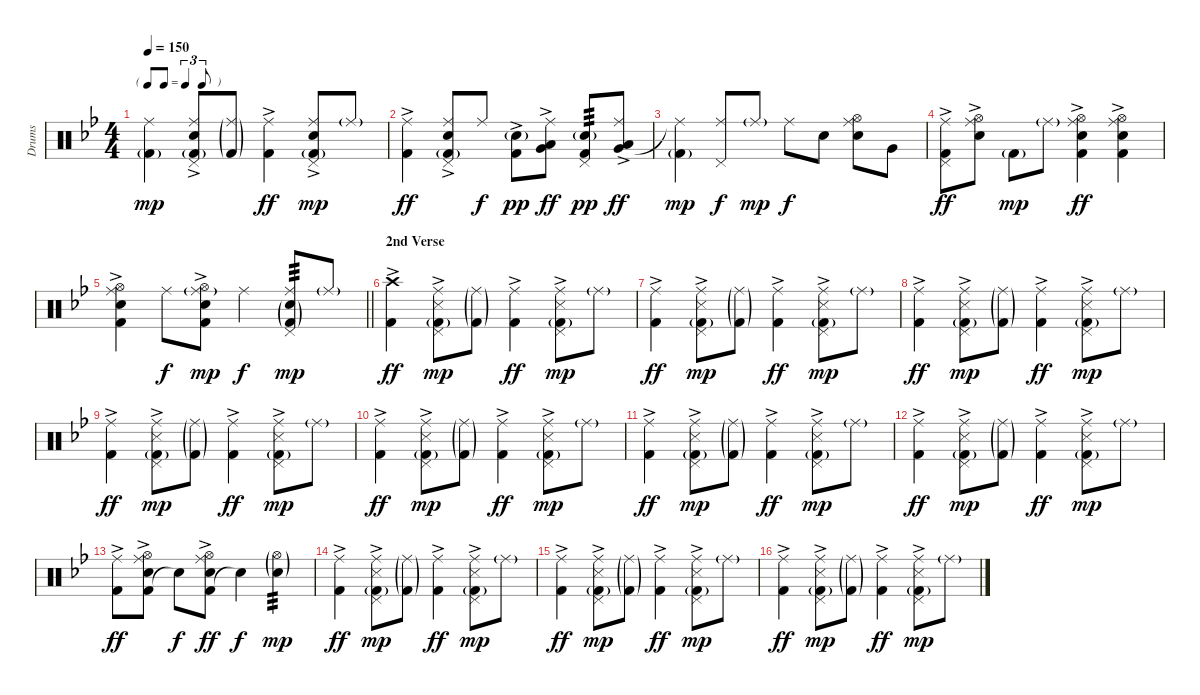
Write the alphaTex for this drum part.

\track ("Drums" "Drums") {instrument percussion}
\staff {score}
\articulation defaults
\ts (4 4)
\tf triplet8th
\tempo 150
\clef neutral
\ks bb
("Kick (hit) 2"{g} "Ride (middle)"{t}).4{dy mp} ("Snare (hit) 2"{ac} "Kick (hit) 2"{g} "Pedal Hi-Hat (hit)" "Ride (middle)").8 ("Kick (hit) 2"{g} "Ride (middle)"{g}).8 ("Kick (hit) 2"{ac} "Ride (middle)").4{dy ff} ("Snare (hit) 2"{ac} "Kick (hit) 2"{g} "Pedal Hi-Hat (hit)" "Ride (middle)").8{dy mp} "Ride (middle)"{g}.8 |
("Kick (hit) 2"{ac} "Ride (middle)").4{dy ff} ("Kick (hit) 2"{g} "Snare (hit) 2"{ac} "Pedal Hi-Hat (hit)" "Ride (middle)").8 "Ride (middle)".8{dy f} ("Kick (hit) 2"{ac} "Snare (hit) 2"{g}).8{dy pp} ("Low Floor Tom (hit)" "Very Low Tom (hit)" "Ride (middle)"{ac}).8{dy ff} ("Kick (hit) 2" "Snare (hit) 2"{g} "Pedal Hi-Hat (hit)").8{tp 3 dy pp} ("Low Floor Tom (hit)"{ac} "Very Low Tom (hit)" "Ride (middle)"{ac}).8{dy ff} |
("Kick (hit) 2"{g} "Ride (middle)"{t}).4{dy mp} ("Pedal Hi-Hat (hit)" "Ride (middle)").8{dy f} "Ride (middle)"{g}.8{dy mp} "Ride (middle)".8{dy f} "Snare (hit) 2".8 ("Snare (hit) 2" "Hi-Hat (open)" "Ride (middle)").8 "Very Low Tom (hit)".8 |
("Kick (hit) 2" "Pedal Hi-Hat (hit)"{ac} "Ride (middle)").8{dy ff} ("Snare (hit) 2"{ac} "Hi-Hat (open)" "Ride (middle)").8 "Kick (hit) 2"{g}.8{dy mp} "Ride (middle)"{g}.8 ("Kick (hit) 2"{ac} "Snare (hit) 2" "Hi-Hat (open)" "Ride (middle)").4{dy ff} ("Kick (hit) 2"{ac} "Snare (hit) 2" "Hi-Hat (open)" "Ride (middle)").4 |
\barLineRight lightlight
("Kick (hit) 2"{ac} "Snare (hit) 2"{ac} "Hi-Hat (open)" "Ride (middle)").4 "Ride (middle)".8{dy f} ("Kick (hit) 2"{ac} "Snare (hit) 2"{ac} "Hi-Hat (open)" "Ride (middle)"{g}).8{dy mp} "Ride (middle)".4{dy f} ("Snare (hit) 2"{g} "Kick (hit) 2"{g} "Pedal Hi-Hat (hit)" "Ride (middle)").8{tp 3 dy mp} "Ride (middle)"{g}.8 |
\section ("" "2nd Verse")
("Kick (hit) 2"{ac} "Crash high (hit)").4{dy ff} ("Snare (side stick) 3"{ac} "Kick (hit) 2"{g} "Pedal Hi-Hat (hit)" "Ride (middle)").8{dy mp} ("Kick (hit) 2"{g} "Ride (middle)"{g}).8 ("Kick (hit) 2"{ac} "Ride (middle)").4{dy ff} ("Snare (side stick) 3"{ac} "Kick (hit) 2"{g} "Pedal Hi-Hat (hit)" "Ride (middle)").8{dy mp} "Ride (middle)"{g}.8 |
("Kick (hit) 2"{ac} "Ride (middle)").4{dy ff} ("Snare (side stick) 3"{ac} "Kick (hit) 2"{g} "Pedal Hi-Hat (hit)" "Ride (middle)").8{dy mp} ("Kick (hit) 2"{g} "Ride (middle)"{g}).8 ("Kick (hit) 2"{ac} "Ride (middle)").4{dy ff} ("Snare (side stick) 3"{ac} "Kick (hit) 2"{g} "Pedal Hi-Hat (hit)" "Ride (middle)").8{dy mp} "Ride (middle)"{g}.8 |
("Kick (hit) 2"{ac} "Ride (middle)").4{dy ff} ("Snare (side stick) 3"{ac} "Kick (hit) 2"{g} "Pedal Hi-Hat (hit)" "Ride (middle)").8{dy mp} ("Kick (hit) 2"{g} "Ride (middle)"{g}).8 ("Kick (hit) 2"{ac} "Ride (middle)").4{dy ff} ("Snare (side stick) 3"{ac} "Kick (hit) 2"{g} "Pedal Hi-Hat (hit)" "Ride (middle)").8{dy mp} "Ride (middle)"{g}.8 |
("Kick (hit) 2"{ac} "Ride (middle)").4{dy ff} ("Snare (side stick) 3"{ac} "Kick (hit) 2"{g} "Pedal Hi-Hat (hit)" "Ride (middle)").8{dy mp} ("Kick (hit) 2"{g} "Ride (middle)"{g}).8 ("Kick (hit) 2"{ac} "Ride (middle)").4{dy ff} ("Snare (side stick) 3"{ac} "Kick (hit) 2"{g} "Pedal Hi-Hat (hit)" "Ride (middle)").8{dy mp} "Ride (middle)"{g}.8 |
("Kick (hit) 2"{ac} "Ride (middle)").4{dy ff} ("Snare (side stick) 3"{ac} "Kick (hit) 2"{g} "Pedal Hi-Hat (hit)" "Ride (middle)").8{dy mp} ("Kick (hit) 2"{g} "Ride (middle)"{g}).8 ("Kick (hit) 2"{ac} "Ride (middle)").4{dy ff} ("Snare (side stick) 3"{ac} "Kick (hit) 2"{g} "Pedal Hi-Hat (hit)" "Ride (middle)").8{dy mp} "Ride (middle)"{g}.8 |
("Kick (hit) 2"{ac} "Ride (middle)").4{dy ff} ("Snare (side stick) 3"{ac} "Kick (hit) 2"{g} "Pedal Hi-Hat (hit)" "Ride (middle)").8{dy mp} ("Kick (hit) 2"{g} "Ride (middle)"{g}).8 ("Kick (hit) 2"{ac} "Ride (middle)").4{dy ff} ("Snare (side stick) 3"{ac} "Kick (hit) 2"{g} "Pedal Hi-Hat (hit)" "Ride (middle)").8{dy mp} "Ride (middle)"{g}.8 |
("Kick (hit) 2"{ac} "Ride (middle)").4{dy ff} ("Snare (side stick) 3"{ac} "Kick (hit) 2"{g} "Pedal Hi-Hat (hit)" "Ride (middle)").8{dy mp} ("Kick (hit) 2"{g} "Ride (middle)"{g}).8 ("Kick (hit) 2"{ac} "Ride (middle)").4{dy ff} ("Snare (side stick) 3"{ac} "Kick (hit) 2"{g} "Pedal Hi-Hat (hit)" "Ride (middle)").8{dy mp} "Ride (middle)"{g}.8 |
("Kick (hit) 2"{ac} "Ride (middle)").8{dy ff} ("Kick (hit) 2" "Snare (hit) 2" "Hi-Hat (open)" "Ride (middle)"{ac}).8 "Snare (hit)"{t}.8{dy f} ("Kick (hit) 2" "Snare (hit) 2" "Hi-Hat (open)" "Ride (middle)"{ac}).8{dy ff} "Snare (hit)"{t}.4{dy f} ("Snare (hit) 2"{g} "Hi-Hat (open)"{g}).4{tp 3 dy mp} |
("Kick (hit) 2"{ac} "Ride (middle)").4{dy ff} ("Snare (side stick) 3"{ac} "Kick (hit) 2"{g} "Pedal Hi-Hat (hit)" "Ride (middle)").8{dy mp} ("Kick (hit) 2"{g} "Ride (middle)"{g}).8 ("Kick (hit) 2"{ac} "Ride (middle)").4{dy ff} ("Snare (side stick) 3"{ac} "Kick (hit) 2"{g} "Pedal Hi-Hat (hit)" "Ride (middle)").8{dy mp} "Ride (middle)"{g}.8 |
("Kick (hit) 2"{ac} "Ride (middle)").4{dy ff} ("Snare (side stick) 3"{ac} "Kick (hit) 2"{g} "Pedal Hi-Hat (hit)" "Ride (middle)").8{dy mp} ("Kick (hit) 2"{g} "Ride (middle)"{g}).8 ("Kick (hit) 2"{ac} "Ride (middle)").4{dy ff} ("Snare (side stick) 3"{ac} "Kick (hit) 2"{g} "Pedal Hi-Hat (hit)" "Ride (middle)").8{dy mp} "Ride (middle)"{g}.8 |
("Kick (hit) 2"{ac} "Ride (middle)").4{dy ff} ("Snare (side stick) 3"{ac} "Kick (hit) 2"{g} "Pedal Hi-Hat (hit)" "Ride (middle)").8{dy mp} ("Kick (hit) 2"{g} "Ride (middle)"{g}).8 ("Kick (hit) 2"{ac} "Ride (middle)").4{dy ff} ("Snare (side stick) 3"{ac} "Kick (hit) 2"{g} "Pedal Hi-Hat (hit)" "Ride (middle)").8{dy mp} "Ride (middle)"{g}.8
